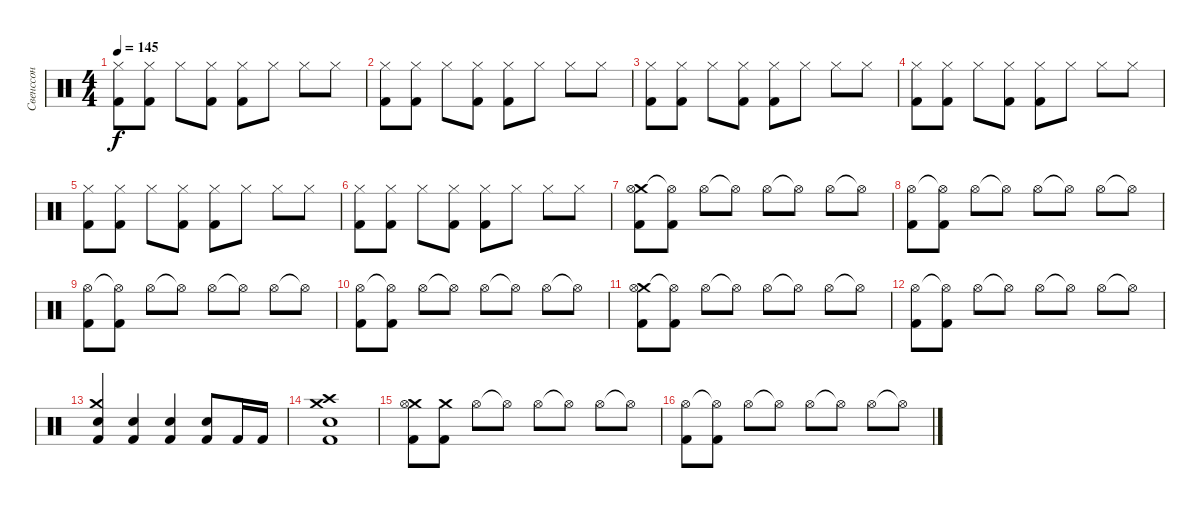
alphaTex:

\track ("Свенссон" "Свенссон") {instrument percussion}
\staff {score}
\articulation defaults
\ts (4 4)
\tempo 145
\clef neutral
\ks c
("Hi-Hat (closed)" "Kick (hit) 2").8{dy f} ("Hi-Hat (closed)" "Kick (hit) 2").8 "Hi-Hat (closed)".8 ("Hi-Hat (closed)" "Kick (hit) 2").8 ("Hi-Hat (closed)" "Kick (hit) 2").8 "Hi-Hat (closed)".8 "Hi-Hat (closed)".8 "Hi-Hat (closed)".8 |
("Hi-Hat (closed)" "Kick (hit) 2").8 ("Hi-Hat (closed)" "Kick (hit) 2").8 "Hi-Hat (closed)".8 ("Hi-Hat (closed)" "Kick (hit) 2").8 ("Hi-Hat (closed)" "Kick (hit) 2").8 "Hi-Hat (closed)".8 "Hi-Hat (closed)".8 "Hi-Hat (closed)".8 |
("Hi-Hat (closed)" "Kick (hit) 2").8 ("Hi-Hat (closed)" "Kick (hit) 2").8 "Hi-Hat (closed)".8 ("Hi-Hat (closed)" "Kick (hit) 2").8 ("Hi-Hat (closed)" "Kick (hit) 2").8 "Hi-Hat (closed)".8 "Hi-Hat (closed)".8 "Hi-Hat (closed)".8 |
("Hi-Hat (closed)" "Kick (hit) 2").8 ("Hi-Hat (closed)" "Kick (hit) 2").8 "Hi-Hat (closed)".8 ("Hi-Hat (closed)" "Kick (hit) 2").8 ("Hi-Hat (closed)" "Kick (hit) 2").8 "Hi-Hat (closed)".8 "Hi-Hat (closed)".8 "Hi-Hat (closed)".8 |
("Hi-Hat (closed)" "Kick (hit) 2").8 ("Hi-Hat (closed)" "Kick (hit) 2").8 "Hi-Hat (closed)".8 ("Hi-Hat (closed)" "Kick (hit) 2").8 ("Hi-Hat (closed)" "Kick (hit) 2").8 "Hi-Hat (closed)".8 "Hi-Hat (closed)".8 "Hi-Hat (closed)".8 |
("Hi-Hat (closed)" "Kick (hit) 2").8 ("Hi-Hat (closed)" "Kick (hit) 2").8 "Hi-Hat (closed)".8 ("Hi-Hat (closed)" "Kick (hit) 2").8 ("Hi-Hat (closed)" "Kick (hit) 2").8 "Hi-Hat (closed)".8 "Hi-Hat (closed)".8 "Hi-Hat (closed)".8 |
("Crash medium (hit)" "Hi-Hat (open)" "Kick (hit) 2").8 ("Hi-Hat (open)"{t} "Kick (hit) 2").8 "Hi-Hat (open)".8 "Hi-Hat (open)"{t}.8 "Hi-Hat (open)".8 "Hi-Hat (open)"{t}.8 "Hi-Hat (open)".8 "Hi-Hat (open)"{t}.8 |
("Hi-Hat (open)" "Kick (hit) 2").8 ("Hi-Hat (open)"{t} "Kick (hit) 2").8 "Hi-Hat (open)".8 "Hi-Hat (open)"{t}.8 "Hi-Hat (open)".8 "Hi-Hat (open)"{t}.8 "Hi-Hat (open)".8 "Hi-Hat (open)"{t}.8 |
("Hi-Hat (open)" "Kick (hit) 2").8 ("Hi-Hat (open)"{t} "Kick (hit) 2").8 "Hi-Hat (open)".8 "Hi-Hat (open)"{t}.8 "Hi-Hat (open)".8 "Hi-Hat (open)"{t}.8 "Hi-Hat (open)".8 "Hi-Hat (open)"{t}.8 |
("Hi-Hat (open)" "Kick (hit) 2").8 ("Hi-Hat (open)"{t} "Kick (hit) 2").8 "Hi-Hat (open)".8 "Hi-Hat (open)"{t}.8 "Hi-Hat (open)".8 "Hi-Hat (open)"{t}.8 "Hi-Hat (open)".8 "Hi-Hat (open)"{t}.8 |
("Crash medium (hit)" "Hi-Hat (open)" "Kick (hit) 2").8 ("Hi-Hat (open)"{t} "Kick (hit) 2").8 "Hi-Hat (open)".8 "Hi-Hat (open)"{t}.8 "Hi-Hat (open)".8 "Hi-Hat (open)"{t}.8 "Hi-Hat (open)".8 "Hi-Hat (open)"{t}.8 |
("Hi-Hat (open)" "Kick (hit) 2").8 ("Hi-Hat (open)"{t} "Kick (hit) 2").8 "Hi-Hat (open)".8 "Hi-Hat (open)"{t}.8 "Hi-Hat (open)".8 "Hi-Hat (open)"{t}.8 "Hi-Hat (open)".8 "Hi-Hat (open)"{t}.8 |
("Crash medium (hit)" "Snare (hit) 2" "Kick (hit) 2").4 ("Snare (hit) 2" "Kick (hit) 2").4 ("Snare (hit) 2" "Kick (hit) 2").4 ("Snare (hit) 2" "Kick (hit) 2").8 "Kick (hit) 2".16 "Kick (hit) 2".16 |
("Crash medium (hit)" "Crash high (hit)" "Snare (hit) 2" "Kick (hit) 2").1 |
("Crash medium (hit)" "Hi-Hat (open)" "Kick (hit) 2").8 ("Crash medium (hit)" "Kick (hit) 2").8 "Hi-Hat (open)".8 "Hi-Hat (open)"{t}.8 "Hi-Hat (open)".8 "Hi-Hat (open)"{t}.8 "Hi-Hat (open)".8 "Hi-Hat (open)"{t}.8 |
("Hi-Hat (open)" "Kick (hit) 2").8 ("Hi-Hat (open)"{t} "Kick (hit) 2").8 "Hi-Hat (open)".8 "Hi-Hat (open)"{t}.8 "Hi-Hat (open)".8 "Hi-Hat (open)"{t}.8 "Hi-Hat (open)".8 "Hi-Hat (open)"{t}.8
